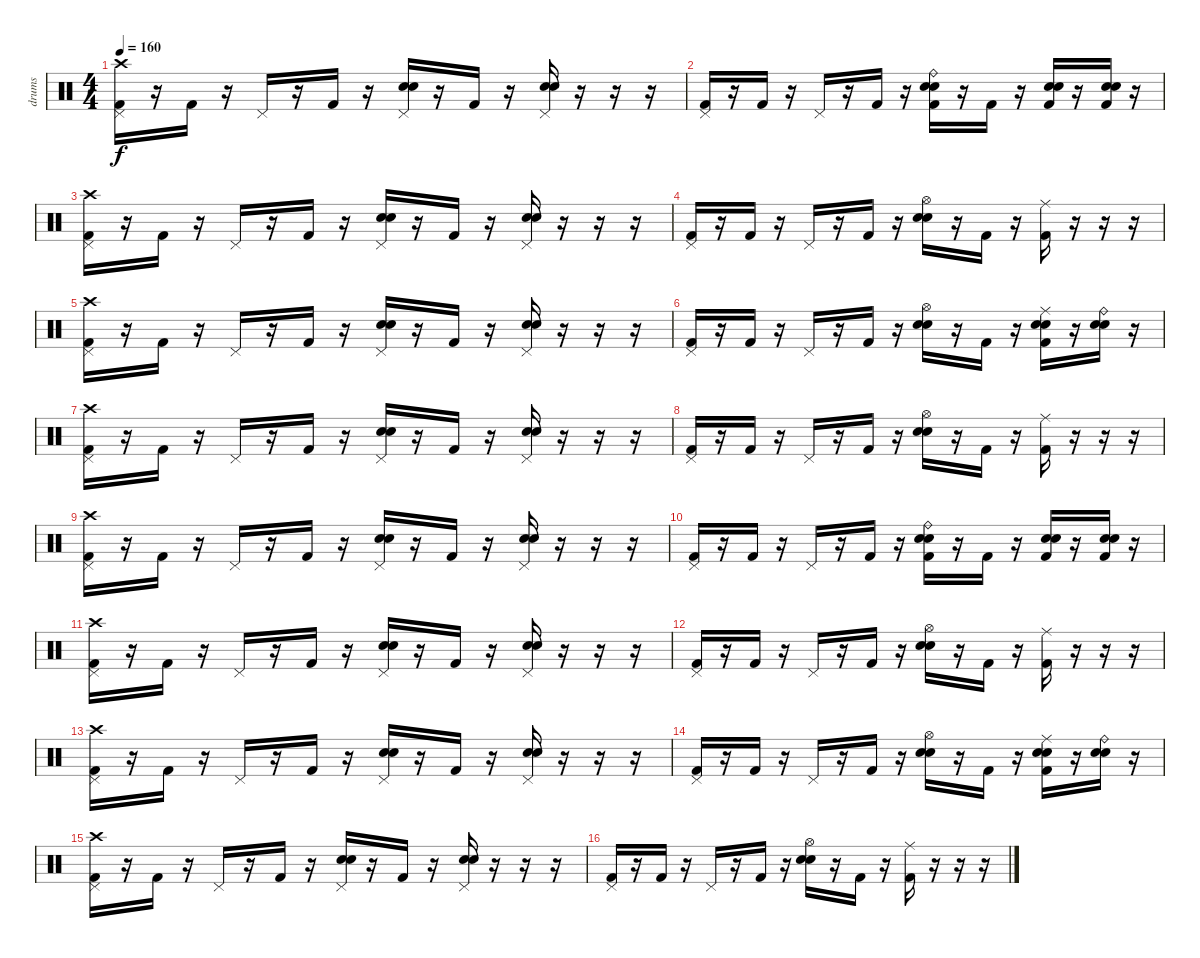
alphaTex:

\track ("drums" "drums") {instrument percussion}
\staff {score}
\articulation defaults
\ts (4 4)
\tempo 160
\clef neutral
\ks c
("Crash high (hit)" "Pedal Hi-Hat (hit)" "Kick (hit) 2").16{dy f} r.16 "Kick (hit) 2".16 r.16 "Pedal Hi-Hat (hit)".16 r.16 "Kick (hit) 2".16 r.16 ("Pedal Hi-Hat (hit)" "Electric Snare (hit)" "Snare (hit) 2").16 r.16 "Kick (hit) 2".16 r.16 ("Pedal Hi-Hat (hit)" "Electric Snare (hit)" "Snare (hit) 2").16 r.16 r.16 r.16 |
("Pedal Hi-Hat (hit)" "Kick (hit) 2").16 r.16 "Kick (hit) 2".16 r.16 "Pedal Hi-Hat (hit)".16 r.16 "Kick (hit) 2".16 r.16 ("Ride (bell)" "Electric Snare (hit)" "Snare (hit) 2" "Kick (hit) 2").16 r.16 "Kick (hit) 2".16 r.16 ("Electric Snare (hit)" "Snare (hit) 2" "Kick (hit) 2").16 r.16 ("Electric Snare (hit)" "Snare (hit) 2" "Kick (hit) 2").16 r.16 |
("Crash high (hit)" "Pedal Hi-Hat (hit)" "Kick (hit) 2").16 r.16 "Kick (hit) 2".16 r.16 "Pedal Hi-Hat (hit)".16 r.16 "Kick (hit) 2".16 r.16 ("Pedal Hi-Hat (hit)" "Electric Snare (hit)" "Snare (hit) 2").16 r.16 "Kick (hit) 2".16 r.16 ("Pedal Hi-Hat (hit)" "Electric Snare (hit)" "Snare (hit) 2").16 r.16 r.16 r.16 |
("Pedal Hi-Hat (hit)" "Kick (hit) 2").16 r.16 "Kick (hit) 2".16 r.16 "Pedal Hi-Hat (hit)".16 r.16 "Kick (hit) 2".16 r.16 ("Hi-Hat (open)" "Electric Snare (hit)" "Snare (hit) 2").16 r.16 "Kick (hit) 2".16 r.16 ("Ride (middle)" "Kick (hit) 2").16 r.16 r.16 r.16 |
("Crash high (hit)" "Pedal Hi-Hat (hit)" "Kick (hit) 2").16 r.16 "Kick (hit) 2".16 r.16 "Pedal Hi-Hat (hit)".16 r.16 "Kick (hit) 2".16 r.16 ("Pedal Hi-Hat (hit)" "Electric Snare (hit)" "Snare (hit) 2").16 r.16 "Kick (hit) 2".16 r.16 ("Pedal Hi-Hat (hit)" "Electric Snare (hit)" "Snare (hit) 2").16 r.16 r.16 r.16 |
("Pedal Hi-Hat (hit)" "Kick (hit) 2").16 r.16 "Kick (hit) 2".16 r.16 "Pedal Hi-Hat (hit)".16 r.16 "Kick (hit) 2".16 r.16 ("Hi-Hat (open)" "Electric Snare (hit)" "Snare (hit) 2").16 r.16 "Kick (hit) 2".16 r.16 ("Ride (middle)" "Electric Snare (hit)" "Snare (hit) 2" "Kick (hit) 2").16 r.16 ("Ride (bell)" "Electric Snare (hit)" "Snare (hit) 2").16 r.16 |
("Crash high (hit)" "Pedal Hi-Hat (hit)" "Kick (hit) 2").16 r.16 "Kick (hit) 2".16 r.16 "Pedal Hi-Hat (hit)".16 r.16 "Kick (hit) 2".16 r.16 ("Pedal Hi-Hat (hit)" "Electric Snare (hit)" "Snare (hit) 2").16 r.16 "Kick (hit) 2".16 r.16 ("Pedal Hi-Hat (hit)" "Electric Snare (hit)" "Snare (hit) 2").16 r.16 r.16 r.16 |
("Pedal Hi-Hat (hit)" "Kick (hit) 2").16 r.16 "Kick (hit) 2".16 r.16 "Pedal Hi-Hat (hit)".16 r.16 "Kick (hit) 2".16 r.16 ("Hi-Hat (open)" "Electric Snare (hit)" "Snare (hit) 2").16 r.16 "Kick (hit) 2".16 r.16 ("Ride (middle)" "Kick (hit) 2").16 r.16 r.16 r.16 |
("Crash high (hit)" "Pedal Hi-Hat (hit)" "Kick (hit) 2").16 r.16 "Kick (hit) 2".16 r.16 "Pedal Hi-Hat (hit)".16 r.16 "Kick (hit) 2".16 r.16 ("Pedal Hi-Hat (hit)" "Electric Snare (hit)" "Snare (hit) 2").16 r.16 "Kick (hit) 2".16 r.16 ("Pedal Hi-Hat (hit)" "Electric Snare (hit)" "Snare (hit) 2").16 r.16 r.16 r.16 |
("Pedal Hi-Hat (hit)" "Kick (hit) 2").16 r.16 "Kick (hit) 2".16 r.16 "Pedal Hi-Hat (hit)".16 r.16 "Kick (hit) 2".16 r.16 ("Ride (bell)" "Electric Snare (hit)" "Snare (hit) 2" "Kick (hit) 2").16 r.16 "Kick (hit) 2".16 r.16 ("Electric Snare (hit)" "Snare (hit) 2" "Kick (hit) 2").16 r.16 ("Electric Snare (hit)" "Snare (hit) 2" "Kick (hit) 2").16 r.16 |
("Crash high (hit)" "Pedal Hi-Hat (hit)" "Kick (hit) 2").16 r.16 "Kick (hit) 2".16 r.16 "Pedal Hi-Hat (hit)".16 r.16 "Kick (hit) 2".16 r.16 ("Pedal Hi-Hat (hit)" "Electric Snare (hit)" "Snare (hit) 2").16 r.16 "Kick (hit) 2".16 r.16 ("Pedal Hi-Hat (hit)" "Electric Snare (hit)" "Snare (hit) 2").16 r.16 r.16 r.16 |
("Pedal Hi-Hat (hit)" "Kick (hit) 2").16 r.16 "Kick (hit) 2".16 r.16 "Pedal Hi-Hat (hit)".16 r.16 "Kick (hit) 2".16 r.16 ("Hi-Hat (open)" "Electric Snare (hit)" "Snare (hit) 2").16 r.16 "Kick (hit) 2".16 r.16 ("Ride (middle)" "Kick (hit) 2").16 r.16 r.16 r.16 |
("Crash high (hit)" "Pedal Hi-Hat (hit)" "Kick (hit) 2").16 r.16 "Kick (hit) 2".16 r.16 "Pedal Hi-Hat (hit)".16 r.16 "Kick (hit) 2".16 r.16 ("Pedal Hi-Hat (hit)" "Electric Snare (hit)" "Snare (hit) 2").16 r.16 "Kick (hit) 2".16 r.16 ("Pedal Hi-Hat (hit)" "Electric Snare (hit)" "Snare (hit) 2").16 r.16 r.16 r.16 |
("Pedal Hi-Hat (hit)" "Kick (hit) 2").16 r.16 "Kick (hit) 2".16 r.16 "Pedal Hi-Hat (hit)".16 r.16 "Kick (hit) 2".16 r.16 ("Hi-Hat (open)" "Electric Snare (hit)" "Snare (hit) 2").16 r.16 "Kick (hit) 2".16 r.16 ("Ride (middle)" "Electric Snare (hit)" "Snare (hit) 2" "Kick (hit) 2").16 r.16 ("Ride (bell)" "Electric Snare (hit)" "Snare (hit) 2").16 r.16 |
("Crash high (hit)" "Pedal Hi-Hat (hit)" "Kick (hit) 2").16 r.16 "Kick (hit) 2".16 r.16 "Pedal Hi-Hat (hit)".16 r.16 "Kick (hit) 2".16 r.16 ("Pedal Hi-Hat (hit)" "Electric Snare (hit)" "Snare (hit) 2").16 r.16 "Kick (hit) 2".16 r.16 ("Pedal Hi-Hat (hit)" "Electric Snare (hit)" "Snare (hit) 2").16 r.16 r.16 r.16 |
("Pedal Hi-Hat (hit)" "Kick (hit) 2").16 r.16 "Kick (hit) 2".16 r.16 "Pedal Hi-Hat (hit)".16 r.16 "Kick (hit) 2".16 r.16 ("Hi-Hat (open)" "Electric Snare (hit)" "Snare (hit) 2").16 r.16 "Kick (hit) 2".16 r.16 ("Ride (middle)" "Kick (hit) 2").16 r.16 r.16 r.16
